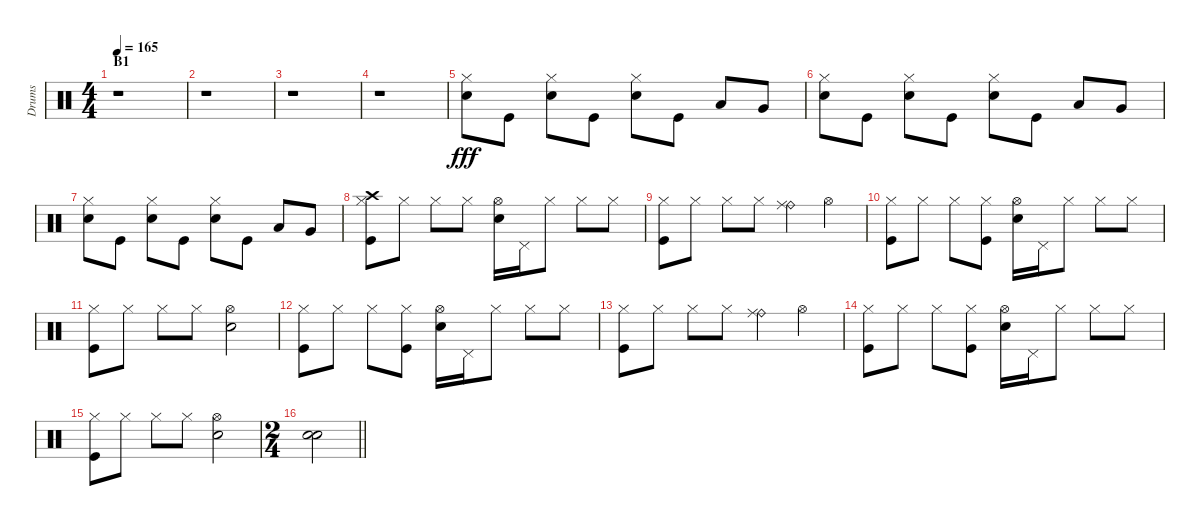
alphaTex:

\track ("Drums" "Drums") {instrument percussion}
\staff {score}
\articulation defaults
\ts (4 4)
\section ("" "B1")
\tempo 165
\clef neutral
\ks c
r.1{dy fff} |
r.1 |
r.1 |
r.1 |
("Hi-Hat (closed)" "Snare (hit) 2").8 "Kick (hit)".8 ("Hi-Hat (closed)" "Snare (hit) 2").8 "Kick (hit)".8 ("Hi-Hat (closed)" "Snare (hit) 2").8 "Kick (hit)".8 "Low Tom (hit)".8 "Very Low Tom (hit)".8 |
("Hi-Hat (closed)" "Snare (hit) 2").8 "Kick (hit)".8 ("Hi-Hat (closed)" "Snare (hit) 2").8 "Kick (hit)".8 ("Hi-Hat (closed)" "Snare (hit) 2").8 "Kick (hit)".8 "Low Tom (hit)".8 "Very Low Tom (hit)".8 |
("Hi-Hat (closed)" "Snare (hit) 2").8 "Kick (hit)".8 ("Hi-Hat (closed)" "Snare (hit) 2").8 "Kick (hit)".8 ("Hi-Hat (closed)" "Snare (hit) 2").8 "Kick (hit)".8 "Low Tom (hit)".8 "Very Low Tom (hit)".8 |
("Hi-Hat (closed)" "Crash high (hit)" "Kick (hit)").8 "Hi-Hat (closed)".8 "Hi-Hat (closed)".8 "Hi-Hat (closed)".8 ("Hi-Hat (open)" "Snare (hit) 2").16 "Pedal Hi-Hat (hit)".16 "Hi-Hat (closed)".8 "Hi-Hat (closed)".8 "Hi-Hat (closed)".8 |
("Hi-Hat (closed)" "Kick (hit)").8 "Hi-Hat (closed)".8 "Hi-Hat (closed)".8 "Hi-Hat (closed)".8 ("Ride (bell)" "Ride (middle)").4 "Hi-Hat (open)".4 |
("Hi-Hat (closed)" "Kick (hit)").8 "Hi-Hat (closed)".8 "Hi-Hat (closed)".8 ("Hi-Hat (closed)" "Kick (hit)").8 ("Hi-Hat (open)" "Snare (hit) 2").16 "Pedal Hi-Hat (hit)".16 "Hi-Hat (closed)".8 "Hi-Hat (closed)".8 "Hi-Hat (closed)".8 |
("Hi-Hat (closed)" "Kick (hit)").8 "Hi-Hat (closed)".8 "Hi-Hat (closed)".8 "Hi-Hat (closed)".8 ("Hi-Hat (open)" "Snare (hit) 2").2 |
("Hi-Hat (closed)" "Kick (hit)").8 "Hi-Hat (closed)".8 "Hi-Hat (closed)".8 ("Hi-Hat (closed)" "Kick (hit)").8 ("Hi-Hat (open)" "Snare (hit) 2").16 "Pedal Hi-Hat (hit)".16 "Hi-Hat (closed)".8 "Hi-Hat (closed)".8 "Hi-Hat (closed)".8 |
("Hi-Hat (closed)" "Kick (hit)").8 "Hi-Hat (closed)".8 "Hi-Hat (closed)".8 "Hi-Hat (closed)".8 ("Ride (bell)" "Ride (middle)").4 "Hi-Hat (open)".4 |
("Hi-Hat (closed)" "Kick (hit)").8 "Hi-Hat (closed)".8 "Hi-Hat (closed)".8 ("Hi-Hat (closed)" "Kick (hit)").8 ("Hi-Hat (open)" "Snare (hit) 2").16 "Pedal Hi-Hat (hit)".16 "Hi-Hat (closed)".8 "Hi-Hat (closed)".8 "Hi-Hat (closed)".8 |
("Hi-Hat (closed)" "Kick (hit)").8 "Hi-Hat (closed)".8 "Hi-Hat (closed)".8 "Hi-Hat (closed)".8 ("Hi-Hat (open)" "Snare (hit) 2").2 |
\ts (2 4)
\barLineRight lightlight
("Electric Snare (hit)" "Snare (hit) 2").2
